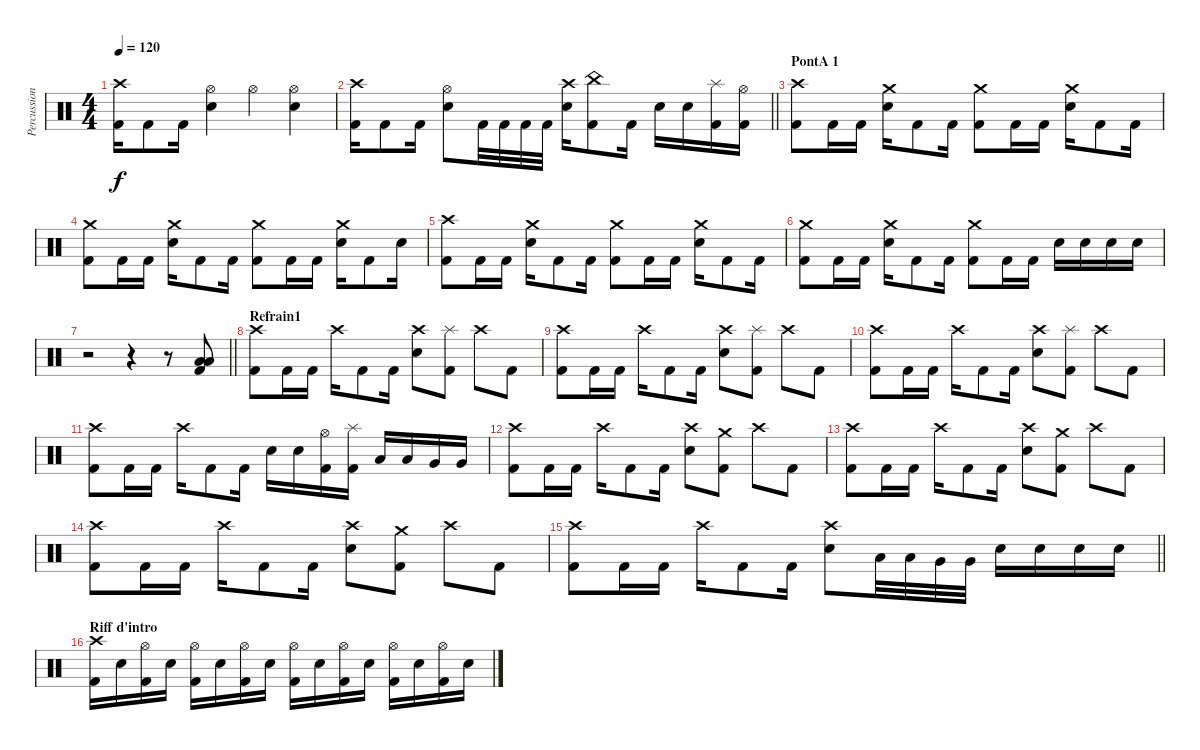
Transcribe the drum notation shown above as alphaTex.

\track ("Percussion" "Percussion") {instrument percussion}
\staff {score}
\articulation defaults
\ts (4 4)
\tempo 120
\clef neutral
\ks c
("Crash high (hit)" "Kick (hit) 2").16{dy f} "Kick (hit) 2".8 "Kick (hit) 2".16 ("Hi-Hat (open)" "Electric Snare (hit)").4 "Hi-Hat (open)".4 ("Hi-Hat (open)" "Electric Snare (hit)").4 |
\barLineRight lightlight
("Crash high (hit)" "Kick (hit) 2").16 "Kick (hit) 2".8 "Kick (hit) 2".16 ("Hi-Hat (open)" "Electric Snare (hit)").8 "Kick (hit) 2".32 "Kick (hit) 2".32 "Kick (hit) 2".32 "Kick (hit) 2".32 ("Crash high (hit)" "Electric Snare (hit)").16 ("China (hit)" "Kick (hit) 2").8 "Kick (hit) 2".16 "Electric Snare (hit)".16 "Electric Snare (hit)".16 ("Splash (hit)" "Kick (hit) 2").16 ("Hi-Hat (open)" "Kick (hit) 2").16 |
\section ("" "PontA 1")
("Crash high (hit)" "Kick (hit) 2").8 "Kick (hit) 2".16 "Kick (hit) 2".16 ("Crash medium (hit)" "Electric Snare (hit)").16 "Kick (hit) 2".8 "Kick (hit) 2".16 ("Crash medium (hit)" "Kick (hit) 2").8 "Kick (hit) 2".16 "Kick (hit) 2".16 ("Crash medium (hit)" "Electric Snare (hit)").16 "Kick (hit) 2".8 "Kick (hit) 2".16 |
("Crash medium (hit)" "Kick (hit) 2").8 "Kick (hit) 2".16 "Kick (hit) 2".16 ("Crash medium (hit)" "Electric Snare (hit)").16 "Kick (hit) 2".8 "Kick (hit) 2".16 ("Crash medium (hit)" "Kick (hit) 2").8 "Kick (hit) 2".16 "Kick (hit) 2".16 ("Crash medium (hit)" "Electric Snare (hit)").16 "Kick (hit) 2".8 "Electric Snare (hit)".16 |
("Crash high (hit)" "Kick (hit) 2").8 "Kick (hit) 2".16 "Kick (hit) 2".16 ("Crash medium (hit)" "Electric Snare (hit)").16 "Kick (hit) 2".8 "Kick (hit) 2".16 ("Crash medium (hit)" "Kick (hit) 2").8 "Kick (hit) 2".16 "Kick (hit) 2".16 ("Crash medium (hit)" "Electric Snare (hit)").16 "Kick (hit) 2".8 "Kick (hit) 2".16 |
("Crash medium (hit)" "Kick (hit) 2").8 "Kick (hit) 2".16 "Kick (hit) 2".16 ("Crash medium (hit)" "Electric Snare (hit)").16 "Kick (hit) 2".8 "Kick (hit) 2".16 ("Crash medium (hit)" "Kick (hit) 2").8 "Kick (hit) 2".16 "Kick (hit) 2".16 "Electric Snare (hit)".16 "Electric Snare (hit)".16 "Electric Snare (hit)".16 "Electric Snare (hit)".16 |
\barLineRight lightlight
r.2 r.4 r.8 ("Low Floor Tom (hit)" "Low Tom (hit)" "Kick (hit) 2").8 |
\section ("" "Refrain1")
("Crash high (hit)" "Kick (hit) 2").8 "Kick (hit) 2".16 "Kick (hit) 2".16 "Crash high (hit)".16 "Kick (hit) 2".8 "Kick (hit) 2".16 ("Crash high (hit)" "Electric Snare (hit)").8 ("Splash (hit)" "Kick (hit) 2").8 "Crash high (hit)".8 "Kick (hit) 2".8 |
("Crash high (hit)" "Kick (hit) 2").8 "Kick (hit) 2".16 "Kick (hit) 2".16 "Crash high (hit)".16 "Kick (hit) 2".8 "Kick (hit) 2".16 ("Crash high (hit)" "Electric Snare (hit)").8 ("Splash (hit)" "Kick (hit) 2").8 "Crash high (hit)".8 "Kick (hit) 2".8 |
("Crash high (hit)" "Kick (hit) 2").8 "Kick (hit) 2".16 "Kick (hit) 2".16 "Crash high (hit)".16 "Kick (hit) 2".8 "Kick (hit) 2".16 ("Crash high (hit)" "Electric Snare (hit)").8 ("Splash (hit)" "Kick (hit) 2").8 "Crash high (hit)".8 "Kick (hit) 2".8 |
("Crash high (hit)" "Kick (hit) 2").8 "Kick (hit) 2".16 "Kick (hit) 2".16 "Crash high (hit)".16 "Kick (hit) 2".8 "Kick (hit) 2".16 "Electric Snare (hit)".16 "Electric Snare (hit)".16 ("Hi-Hat (open)" "Kick (hit) 2").16 ("Splash (hit)" "Kick (hit) 2").16 "Low Tom (hit)".16 "Low Tom (hit)".16 "Very Low Tom (hit)".16 "Very Low Tom (hit)".16 |
("Crash high (hit)" "Kick (hit) 2").8 "Kick (hit) 2".16 "Kick (hit) 2".16 "Crash high (hit)".16 "Kick (hit) 2".8 "Kick (hit) 2".16 ("Crash high (hit)" "Electric Snare (hit)").8 ("Crash medium (hit)" "Kick (hit) 2").8 "Crash high (hit)".8 "Kick (hit) 2".8 |
("Crash high (hit)" "Kick (hit) 2").8 "Kick (hit) 2".16 "Kick (hit) 2".16 "Crash high (hit)".16 "Kick (hit) 2".8 "Kick (hit) 2".16 ("Crash high (hit)" "Electric Snare (hit)").8 ("Crash medium (hit)" "Kick (hit) 2").8 "Crash high (hit)".8 "Kick (hit) 2".8 |
("Crash high (hit)" "Kick (hit) 2").8 "Kick (hit) 2".16 "Kick (hit) 2".16 "Crash high (hit)".16 "Kick (hit) 2".8 "Kick (hit) 2".16 ("Crash high (hit)" "Electric Snare (hit)").8 ("Crash medium (hit)" "Kick (hit) 2").8 "Crash high (hit)".8 "Kick (hit) 2".8 |
\barLineRight lightlight
("Crash high (hit)" "Kick (hit) 2").8 "Kick (hit) 2".16 "Kick (hit) 2".16 "Crash high (hit)".16 "Kick (hit) 2".8 "Kick (hit) 2".16 ("Crash high (hit)" "Electric Snare (hit)").8 "Low Tom (hit)".32 "Low Tom (hit)".32 "Very Low Tom (hit)".32 "Very Low Tom (hit)".32 "Electric Snare (hit)".16 "Electric Snare (hit)".16 "Electric Snare (hit)".16 "Electric Snare (hit)".16 |
\section ("" "Riff d'intro")
("Crash high (hit)" "Kick (hit) 2").16 "Electric Snare (hit)".16 ("Hi-Hat (open)" "Kick (hit) 2").16 "Electric Snare (hit)".16 ("Hi-Hat (open)" "Kick (hit) 2").16 "Electric Snare (hit)".16 ("Hi-Hat (open)" "Kick (hit) 2").16 "Electric Snare (hit)".16 ("Hi-Hat (open)" "Kick (hit) 2").16 "Electric Snare (hit)".16 ("Hi-Hat (open)" "Kick (hit) 2").16 "Electric Snare (hit)".16 ("Hi-Hat (open)" "Kick (hit) 2").16 "Electric Snare (hit)".16 ("Hi-Hat (open)" "Kick (hit) 2").16 "Electric Snare (hit)".16
